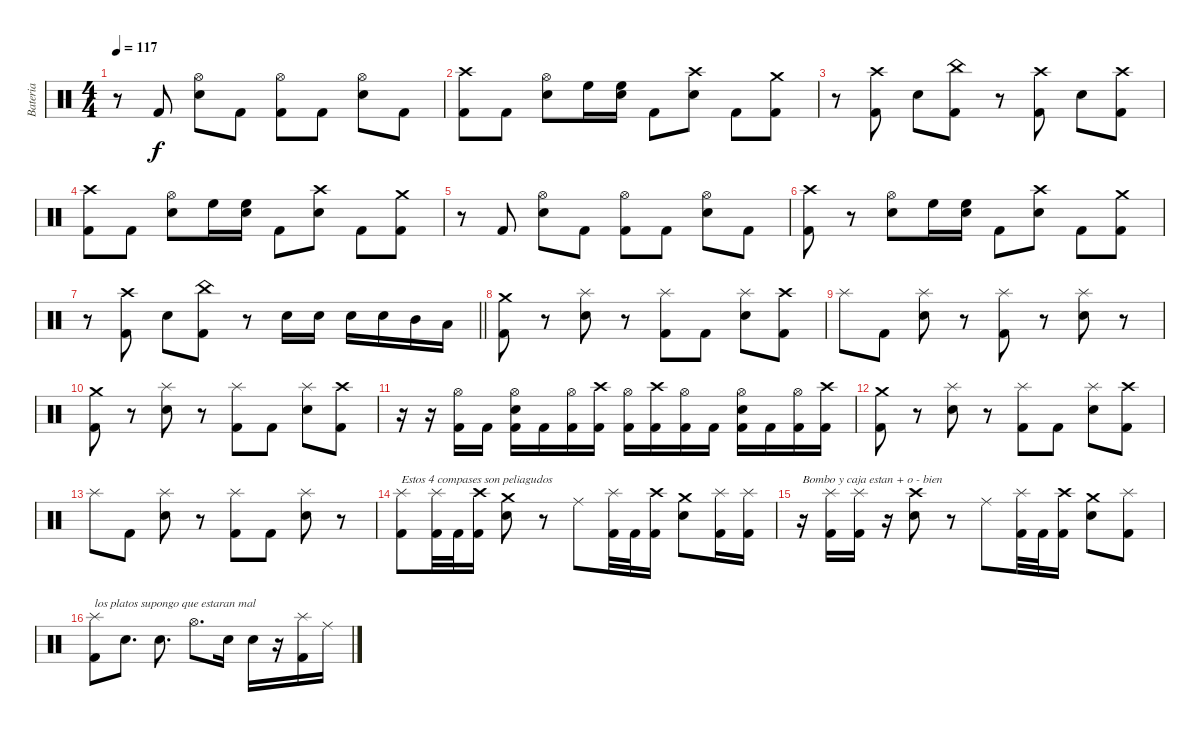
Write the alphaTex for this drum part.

\track ("Bateria" "Bateria") {instrument percussion}
\staff
\articulation defaults
\ts (4 4)
\tempo 117
\clef neutral
\ks c
r.8{dy f} "Kick (hit) 2".8 ("Hi-Hat (open)" "Snare (hit) 2").8 "Kick (hit) 2".8 ("Hi-Hat (open)" "Kick (hit) 2").8 "Kick (hit) 2".8 ("Hi-Hat (open)" "Snare (hit) 2").8 "Kick (hit) 2".8 |
("Crash high (hit)" "Kick (hit) 2").8 "Kick (hit) 2".8 ("Hi-Hat (open)" "Snare (hit) 2").8 "High Floor Tom (hit)".16 ("High Floor Tom (hit)" "Snare (hit) 2").16 "Kick (hit) 2".8 ("Crash high (hit)" "Snare (hit) 2").8 "Kick (hit) 2".8 ("Crash medium (hit)" "Kick (hit) 2").8 |
r.8 ("Crash high (hit)" "Kick (hit) 2").8 "Snare (hit) 2".8 ("China (hit)" "Kick (hit) 2").8 r.8 ("Crash high (hit)" "Kick (hit) 2").8 "Snare (hit) 2".8 ("Crash high (hit)" "Kick (hit) 2").8 |
("Crash high (hit)" "Kick (hit) 2").8 "Kick (hit) 2".8 ("Hi-Hat (open)" "Snare (hit) 2").8 "High Floor Tom (hit)".16 ("High Floor Tom (hit)" "Snare (hit) 2").16 "Kick (hit) 2".8 ("Crash high (hit)" "Snare (hit) 2").8 "Kick (hit) 2".8 ("Crash medium (hit)" "Kick (hit) 2").8 |
r.8 "Kick (hit) 2".8 ("Hi-Hat (open)" "Snare (hit) 2").8 "Kick (hit) 2".8 ("Hi-Hat (open)" "Kick (hit) 2").8 "Kick (hit) 2".8 ("Hi-Hat (open)" "Snare (hit) 2").8 "Kick (hit) 2".8 |
("Crash high (hit)" "Kick (hit) 2").8 r.8 ("Hi-Hat (open)" "Snare (hit) 2").8 "High Floor Tom (hit)".16 ("High Floor Tom (hit)" "Snare (hit) 2").16 "Kick (hit) 2".8 ("Crash high (hit)" "Snare (hit) 2").8 "Kick (hit) 2".8 ("Crash medium (hit)" "Kick (hit) 2").8 |
\barLineRight lightlight
r.8 ("Crash high (hit)" "Kick (hit) 2").8 "Snare (hit) 2".8 ("China (hit)" "Kick (hit) 2").8 r.8 "Snare (hit) 2".16 "Snare (hit) 2".16 "Snare (hit) 2".16 "Snare (hit) 2".16 "Mid Tom (hit)".16 "Low Tom (hit)".16 |
("Crash medium (hit)" "Kick (hit) 2").8 r.8 ("Splash (hit)" "Snare (hit) 2").8 r.8 ("Splash (hit)" "Kick (hit) 2").8 "Kick (hit) 2".8 ("Splash (hit)" "Snare (hit) 2").8 ("Crash high (hit)" "Kick (hit) 2").8 |
"Splash (hit)".8 "Kick (hit) 2".8 ("Splash (hit)" "Snare (hit) 2").8 r.8 ("Splash (hit)" "Kick (hit) 2").8 r.8 ("Splash (hit)" "Snare (hit) 2").8 r.8 |
("Crash medium (hit)" "Kick (hit) 2").8 r.8 ("Splash (hit)" "Snare (hit) 2").8 r.8 ("Splash (hit)" "Kick (hit) 2").8 "Kick (hit) 2".8 ("Splash (hit)" "Snare (hit) 2").8 ("Crash high (hit)" "Kick (hit) 2").8 |
r.16 r.16 ("Hi-Hat (open)" "Kick (hit) 2").16 "Kick (hit) 2".16 ("Hi-Hat (open)" "Snare (hit) 2" "Kick (hit) 2").16 "Kick (hit) 2".16 ("Hi-Hat (open)" "Kick (hit) 2").16 ("Crash high (hit)" "Kick (hit) 2").16 ("Hi-Hat (open)" "Kick (hit) 2").16 ("Crash high (hit)" "Kick (hit) 2").16 ("Hi-Hat (open)" "Kick (hit) 2").16 "Kick (hit) 2".16 ("Hi-Hat (open)" "Snare (hit) 2" "Kick (hit) 2").16 "Kick (hit) 2".16 ("Hi-Hat (open)" "Kick (hit) 2").16 ("Crash high (hit)" "Kick (hit) 2").16 |
("Crash medium (hit)" "Kick (hit) 2").8 r.8 ("Splash (hit)" "Snare (hit) 2").8 r.8 ("Splash (hit)" "Kick (hit) 2").8 "Kick (hit) 2".8 ("Splash (hit)" "Snare (hit) 2").8 ("Crash high (hit)" "Kick (hit) 2").8 |
"Splash (hit)".8 "Kick (hit) 2".8 ("Splash (hit)" "Snare (hit) 2").8 r.8 ("Splash (hit)" "Kick (hit) 2").8 "Kick (hit) 2".8 ("Splash (hit)" "Snare (hit) 2").8 r.8 |
("Splash (hit)" "Kick (hit) 2").8{txt "Estos 4 compases son peliagudos"} ("Splash (hit)" "Kick (hit) 2").32 "Kick (hit) 2".32 ("Crash high (hit)" "Kick (hit) 2").16 ("Crash medium (hit)" "Snare (hit) 2").8 r.8 "Ride (middle)".8 ("Splash (hit)" "Kick (hit) 2").32 "Kick (hit) 2".32 ("Crash high (hit)" "Kick (hit) 2").16 ("Crash medium (hit)" "Snare (hit) 2").8 ("Splash (hit)" "Kick (hit) 2").16 ("Splash (hit)" "Kick (hit) 2").16 |
r.16{txt "Bombo y caja estan + o - bien"} ("Splash (hit)" "Kick (hit) 2").16 ("Splash (hit)" "Kick (hit) 2").16 r.16 ("Crash high (hit)" "Snare (hit) 2").8 r.8 "Ride (middle)".8 ("Splash (hit)" "Kick (hit) 2").32 "Kick (hit) 2".32 ("Crash high (hit)" "Kick (hit) 2").16 ("Crash medium (hit)" "Snare (hit) 2").8 ("Splash (hit)" "Kick (hit) 2").8 |
("Splash (hit)" "Kick (hit) 2").8{txt "los platos supongo que estaran mal"} "Snare (hit) 2".8{d} "Snare (hit) 2".8{d} "Hi-Hat (open)".8{d} "Snare (hit) 2".16 "Snare (hit) 2".16 r.16 ("Splash (hit)" "Kick (hit) 2").16 "Ride (middle)".16
